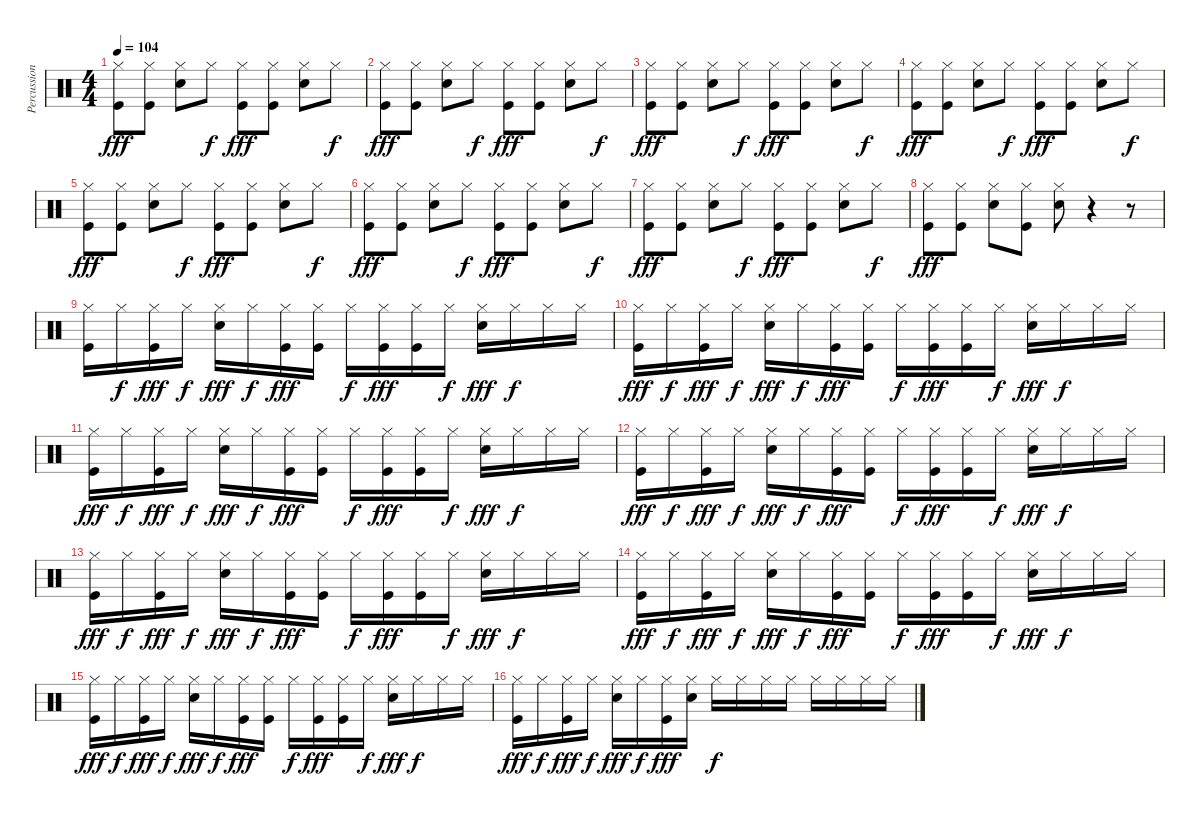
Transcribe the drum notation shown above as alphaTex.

\track ("Percussion" "Percussion") {instrument percussion}
\staff {score}
\articulation defaults
\ts (4 4)
\tempo 104
\clef neutral
\ks c
("Kick (hit)" "Hi-Hat (closed)").8{dy fff} ("Kick (hit)" "Hi-Hat (closed)").8 ("Snare (hit) 2" "Hi-Hat (closed)").8 "Hi-Hat (closed)".8{dy f} ("Kick (hit)" "Hi-Hat (closed)").8{dy fff} ("Kick (hit)" "Hi-Hat (closed)").8 ("Snare (hit) 2" "Hi-Hat (closed)").8 "Hi-Hat (closed)".8{dy f} |
("Kick (hit)" "Hi-Hat (closed)").8{dy fff} ("Kick (hit)" "Hi-Hat (closed)").8 ("Snare (hit) 2" "Hi-Hat (closed)").8 "Hi-Hat (closed)".8{dy f} ("Kick (hit)" "Hi-Hat (closed)").8{dy fff} ("Kick (hit)" "Hi-Hat (closed)").8 ("Snare (hit) 2" "Hi-Hat (closed)").8 "Hi-Hat (closed)".8{dy f} |
("Kick (hit)" "Hi-Hat (closed)").8{dy fff} ("Kick (hit)" "Hi-Hat (closed)").8 ("Snare (hit) 2" "Hi-Hat (closed)").8 "Hi-Hat (closed)".8{dy f} ("Kick (hit)" "Hi-Hat (closed)").8{dy fff} ("Kick (hit)" "Hi-Hat (closed)").8 ("Snare (hit) 2" "Hi-Hat (closed)").8 "Hi-Hat (closed)".8{dy f} |
("Kick (hit)" "Hi-Hat (closed)").8{dy fff} ("Kick (hit)" "Hi-Hat (closed)").8 ("Snare (hit) 2" "Hi-Hat (closed)").8 "Hi-Hat (closed)".8{dy f} ("Kick (hit)" "Hi-Hat (closed)").8{dy fff} ("Kick (hit)" "Hi-Hat (closed)").8 ("Snare (hit) 2" "Hi-Hat (closed)").8 "Hi-Hat (closed)".8{dy f} |
("Kick (hit)" "Hi-Hat (closed)").8{dy fff} ("Kick (hit)" "Hi-Hat (closed)").8 ("Snare (hit) 2" "Hi-Hat (closed)").8 "Hi-Hat (closed)".8{dy f} ("Kick (hit)" "Hi-Hat (closed)").8{dy fff} ("Kick (hit)" "Hi-Hat (closed)").8 ("Snare (hit) 2" "Hi-Hat (closed)").8 "Hi-Hat (closed)".8{dy f} |
("Kick (hit)" "Hi-Hat (closed)").8{dy fff} ("Kick (hit)" "Hi-Hat (closed)").8 ("Snare (hit) 2" "Hi-Hat (closed)").8 "Hi-Hat (closed)".8{dy f} ("Kick (hit)" "Hi-Hat (closed)").8{dy fff} ("Kick (hit)" "Hi-Hat (closed)").8 ("Snare (hit) 2" "Hi-Hat (closed)").8 "Hi-Hat (closed)".8{dy f} |
("Kick (hit)" "Hi-Hat (closed)").8{dy fff} ("Kick (hit)" "Hi-Hat (closed)").8 ("Snare (hit) 2" "Hi-Hat (closed)").8 "Hi-Hat (closed)".8{dy f} ("Kick (hit)" "Hi-Hat (closed)").8{dy fff} ("Kick (hit)" "Hi-Hat (closed)").8 ("Snare (hit) 2" "Hi-Hat (closed)").8 "Hi-Hat (closed)".8{dy f} |
("Kick (hit)" "Hi-Hat (closed)").8{dy fff} ("Kick (hit)" "Hi-Hat (closed)").8 ("Snare (hit) 2" "Hi-Hat (closed)").8 ("Kick (hit)" "Hi-Hat (closed)").8 ("Snare (hit) 2" "Hi-Hat (closed)").8 r.4 r.8 |
("Kick (hit)" "Hi-Hat (closed)").16 "Hi-Hat (closed)".16{dy f} ("Kick (hit)" "Hi-Hat (closed)").16{dy fff} "Hi-Hat (closed)".16{dy f} ("Snare (hit) 2" "Hi-Hat (closed)").16{dy fff} "Hi-Hat (closed)".16{dy f} ("Kick (hit)" "Hi-Hat (closed)").16{dy fff} ("Kick (hit)" "Hi-Hat (closed)").16 "Hi-Hat (closed)".16{dy f} ("Kick (hit)" "Hi-Hat (closed)").16{dy fff} ("Kick (hit)" "Hi-Hat (closed)").16 "Hi-Hat (closed)".16{dy f} ("Snare (hit) 2" "Hi-Hat (closed)").16{dy fff} "Hi-Hat (closed)".16{dy f} "Hi-Hat (closed)".16 "Hi-Hat (closed)".16 |
("Kick (hit)" "Hi-Hat (closed)").16{dy fff} "Hi-Hat (closed)".16{dy f} ("Kick (hit)" "Hi-Hat (closed)").16{dy fff} "Hi-Hat (closed)".16{dy f} ("Snare (hit) 2" "Hi-Hat (closed)").16{dy fff} "Hi-Hat (closed)".16{dy f} ("Kick (hit)" "Hi-Hat (closed)").16{dy fff} ("Kick (hit)" "Hi-Hat (closed)").16 "Hi-Hat (closed)".16{dy f} ("Kick (hit)" "Hi-Hat (closed)").16{dy fff} ("Kick (hit)" "Hi-Hat (closed)").16 "Hi-Hat (closed)".16{dy f} ("Snare (hit) 2" "Hi-Hat (closed)").16{dy fff} "Hi-Hat (closed)".16{dy f} "Hi-Hat (closed)".16 "Hi-Hat (closed)".16 |
("Kick (hit)" "Hi-Hat (closed)").16{dy fff} "Hi-Hat (closed)".16{dy f} ("Kick (hit)" "Hi-Hat (closed)").16{dy fff} "Hi-Hat (closed)".16{dy f} ("Snare (hit) 2" "Hi-Hat (closed)").16{dy fff} "Hi-Hat (closed)".16{dy f} ("Kick (hit)" "Hi-Hat (closed)").16{dy fff} ("Kick (hit)" "Hi-Hat (closed)").16 "Hi-Hat (closed)".16{dy f} ("Kick (hit)" "Hi-Hat (closed)").16{dy fff} ("Kick (hit)" "Hi-Hat (closed)").16 "Hi-Hat (closed)".16{dy f} ("Snare (hit) 2" "Hi-Hat (closed)").16{dy fff} "Hi-Hat (closed)".16{dy f} "Hi-Hat (closed)".16 "Hi-Hat (closed)".16 |
("Kick (hit)" "Hi-Hat (closed)").16{dy fff} "Hi-Hat (closed)".16{dy f} ("Kick (hit)" "Hi-Hat (closed)").16{dy fff} "Hi-Hat (closed)".16{dy f} ("Snare (hit) 2" "Hi-Hat (closed)").16{dy fff} "Hi-Hat (closed)".16{dy f} ("Kick (hit)" "Hi-Hat (closed)").16{dy fff} ("Kick (hit)" "Hi-Hat (closed)").16 "Hi-Hat (closed)".16{dy f} ("Kick (hit)" "Hi-Hat (closed)").16{dy fff} ("Kick (hit)" "Hi-Hat (closed)").16 "Hi-Hat (closed)".16{dy f} ("Snare (hit) 2" "Hi-Hat (closed)").16{dy fff} "Hi-Hat (closed)".16{dy f} "Hi-Hat (closed)".16 "Hi-Hat (closed)".16 |
("Kick (hit)" "Hi-Hat (closed)").16{dy fff} "Hi-Hat (closed)".16{dy f} ("Kick (hit)" "Hi-Hat (closed)").16{dy fff} "Hi-Hat (closed)".16{dy f} ("Snare (hit) 2" "Hi-Hat (closed)").16{dy fff} "Hi-Hat (closed)".16{dy f} ("Kick (hit)" "Hi-Hat (closed)").16{dy fff} ("Kick (hit)" "Hi-Hat (closed)").16 "Hi-Hat (closed)".16{dy f} ("Kick (hit)" "Hi-Hat (closed)").16{dy fff} ("Kick (hit)" "Hi-Hat (closed)").16 "Hi-Hat (closed)".16{dy f} ("Snare (hit) 2" "Hi-Hat (closed)").16{dy fff} "Hi-Hat (closed)".16{dy f} "Hi-Hat (closed)".16 "Hi-Hat (closed)".16 |
("Kick (hit)" "Hi-Hat (closed)").16{dy fff} "Hi-Hat (closed)".16{dy f} ("Kick (hit)" "Hi-Hat (closed)").16{dy fff} "Hi-Hat (closed)".16{dy f} ("Snare (hit) 2" "Hi-Hat (closed)").16{dy fff} "Hi-Hat (closed)".16{dy f} ("Kick (hit)" "Hi-Hat (closed)").16{dy fff} ("Kick (hit)" "Hi-Hat (closed)").16 "Hi-Hat (closed)".16{dy f} ("Kick (hit)" "Hi-Hat (closed)").16{dy fff} ("Kick (hit)" "Hi-Hat (closed)").16 "Hi-Hat (closed)".16{dy f} ("Snare (hit) 2" "Hi-Hat (closed)").16{dy fff} "Hi-Hat (closed)".16{dy f} "Hi-Hat (closed)".16 "Hi-Hat (closed)".16 |
("Kick (hit)" "Hi-Hat (closed)").16{dy fff} "Hi-Hat (closed)".16{dy f} ("Kick (hit)" "Hi-Hat (closed)").16{dy fff} "Hi-Hat (closed)".16{dy f} ("Snare (hit) 2" "Hi-Hat (closed)").16{dy fff} "Hi-Hat (closed)".16{dy f} ("Kick (hit)" "Hi-Hat (closed)").16{dy fff} ("Kick (hit)" "Hi-Hat (closed)").16 "Hi-Hat (closed)".16{dy f} ("Kick (hit)" "Hi-Hat (closed)").16{dy fff} ("Kick (hit)" "Hi-Hat (closed)").16 "Hi-Hat (closed)".16{dy f} ("Snare (hit) 2" "Hi-Hat (closed)").16{dy fff} "Hi-Hat (closed)".16{dy f} "Hi-Hat (closed)".16 "Hi-Hat (closed)".16 |
("Kick (hit)" "Hi-Hat (closed)").16{dy fff} "Hi-Hat (closed)".16{dy f} ("Kick (hit)" "Hi-Hat (closed)").16{dy fff} "Hi-Hat (closed)".16{dy f} ("Snare (hit) 2" "Hi-Hat (closed)").16{dy fff} "Hi-Hat (closed)".16{dy f} ("Kick (hit)" "Hi-Hat (closed)").16{dy fff} ("Snare (hit) 2" "Hi-Hat (closed)").16 "Hi-Hat (closed)".16{dy f} "Hi-Hat (closed)".16 "Hi-Hat (closed)".16 "Hi-Hat (closed)".16 "Hi-Hat (closed)".16 "Hi-Hat (closed)".16 "Hi-Hat (closed)".16 "Hi-Hat (closed)".16
